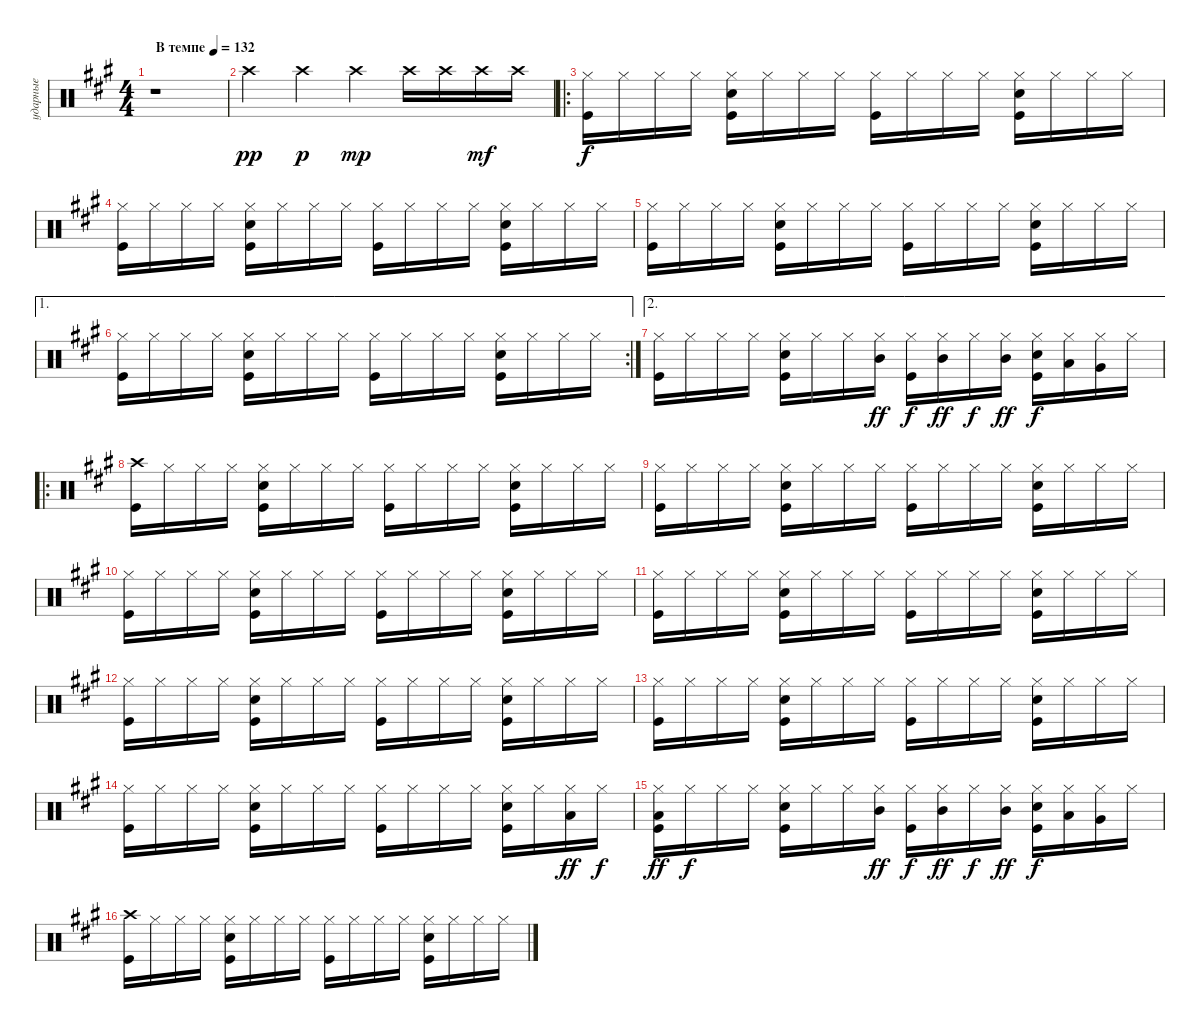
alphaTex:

\track ("ударные" "ударные") {instrument percussion}
\staff {score}
\articulation defaults
\ts (4 4)
\tempo (132 "В темпе")
\clef neutral
\ks f#minor
r.1{dy pp} |
"Crash high (hit)".4 "Crash high (hit)".4{dy p} "Crash high (hit)".4{dy mp} "Crash high (hit)".16 "Crash high (hit)".16 "Crash high (hit)".16{dy mf} "Crash high (hit)".16 |
\ro
("Kick (hit)" "Hi-Hat (closed)").16{dy f} "Hi-Hat (closed)".16 "Hi-Hat (closed)".16 "Hi-Hat (closed)".16 ("Hi-Hat (closed)" "Snare (hit) 2" "Kick (hit)").16 "Hi-Hat (closed)".16 "Hi-Hat (closed)".16 "Hi-Hat (closed)".16 ("Hi-Hat (closed)" "Kick (hit)").16 "Hi-Hat (closed)".16 "Hi-Hat (closed)".16 "Hi-Hat (closed)".16 ("Hi-Hat (closed)" "Snare (hit) 2" "Kick (hit)").16 "Hi-Hat (closed)".16 "Hi-Hat (closed)".16 "Hi-Hat (closed)".16 |
("Hi-Hat (closed)" "Kick (hit)").16 "Hi-Hat (closed)".16 "Hi-Hat (closed)".16 "Hi-Hat (closed)".16 ("Hi-Hat (closed)" "Snare (hit) 2" "Kick (hit)").16 "Hi-Hat (closed)".16 "Hi-Hat (closed)".16 "Hi-Hat (closed)".16 ("Hi-Hat (closed)" "Kick (hit)").16 "Hi-Hat (closed)".16 "Hi-Hat (closed)".16 "Hi-Hat (closed)".16 ("Hi-Hat (closed)" "Snare (hit) 2" "Kick (hit)").16 "Hi-Hat (closed)".16 "Hi-Hat (closed)".16 "Hi-Hat (closed)".16 |
("Hi-Hat (closed)" "Kick (hit)").16 "Hi-Hat (closed)".16 "Hi-Hat (closed)".16 "Hi-Hat (closed)".16 ("Hi-Hat (closed)" "Snare (hit) 2" "Kick (hit)").16 "Hi-Hat (closed)".16 "Hi-Hat (closed)".16 "Hi-Hat (closed)".16 ("Hi-Hat (closed)" "Kick (hit)").16 "Hi-Hat (closed)".16 "Hi-Hat (closed)".16 "Hi-Hat (closed)".16 ("Hi-Hat (closed)" "Snare (hit) 2" "Kick (hit)").16 "Hi-Hat (closed)".16 "Hi-Hat (closed)".16 "Hi-Hat (closed)".16 |
\ae 1
\rc 2
("Hi-Hat (closed)" "Kick (hit)").16 "Hi-Hat (closed)".16 "Hi-Hat (closed)".16 "Hi-Hat (closed)".16 ("Hi-Hat (closed)" "Snare (hit) 2" "Kick (hit)").16 "Hi-Hat (closed)".16 "Hi-Hat (closed)".16 "Hi-Hat (closed)".16 ("Hi-Hat (closed)" "Kick (hit)").16 "Hi-Hat (closed)".16 "Hi-Hat (closed)".16 "Hi-Hat (closed)".16 ("Hi-Hat (closed)" "Snare (hit) 2" "Kick (hit)").16 "Hi-Hat (closed)".16 "Hi-Hat (closed)".16 "Hi-Hat (closed)".16 |
\ae 2
("Hi-Hat (closed)" "Kick (hit)").16 "Hi-Hat (closed)".16 "Hi-Hat (closed)".16 "Hi-Hat (closed)".16 ("Hi-Hat (closed)" "Snare (hit) 2" "Kick (hit)").16 "Hi-Hat (closed)".16 "Hi-Hat (closed)".16 ("Mid Tom (hit)" "Hi-Hat (closed)").16{dy ff} ("Hi-Hat (closed)" "Kick (hit)").16{dy f} ("Mid Tom (hit)" "Hi-Hat (closed)").16{dy ff} "Hi-Hat (closed)".16{dy f} ("Mid Tom (hit)" "Hi-Hat (closed)").16{dy ff} ("Hi-Hat (closed)" "Snare (hit) 2" "Kick (hit)").16{dy f} ("Hi-Hat (closed)" "Low Tom (hit)").16 ("Very Low Tom (hit)" "Hi-Hat (closed)").16 "Hi-Hat (closed)".16 |
\ro
("Kick (hit)" "Crash high (hit)").16 "Hi-Hat (closed)".16 "Hi-Hat (closed)".16 "Hi-Hat (closed)".16 ("Hi-Hat (closed)" "Snare (hit) 2" "Kick (hit)").16 "Hi-Hat (closed)".16 "Hi-Hat (closed)".16 "Hi-Hat (closed)".16 ("Hi-Hat (closed)" "Kick (hit)").16 "Hi-Hat (closed)".16 "Hi-Hat (closed)".16 "Hi-Hat (closed)".16 ("Hi-Hat (closed)" "Snare (hit) 2" "Kick (hit)").16 "Hi-Hat (closed)".16 "Hi-Hat (closed)".16 "Hi-Hat (closed)".16 |
("Hi-Hat (closed)" "Kick (hit)").16 "Hi-Hat (closed)".16 "Hi-Hat (closed)".16 "Hi-Hat (closed)".16 ("Hi-Hat (closed)" "Snare (hit) 2" "Kick (hit)").16 "Hi-Hat (closed)".16 "Hi-Hat (closed)".16 "Hi-Hat (closed)".16 ("Hi-Hat (closed)" "Kick (hit)").16 "Hi-Hat (closed)".16 "Hi-Hat (closed)".16 "Hi-Hat (closed)".16 ("Hi-Hat (closed)" "Snare (hit) 2" "Kick (hit)").16 "Hi-Hat (closed)".16 "Hi-Hat (closed)".16 "Hi-Hat (closed)".16 |
("Hi-Hat (closed)" "Kick (hit)").16 "Hi-Hat (closed)".16 "Hi-Hat (closed)".16 "Hi-Hat (closed)".16 ("Hi-Hat (closed)" "Snare (hit) 2" "Kick (hit)").16 "Hi-Hat (closed)".16 "Hi-Hat (closed)".16 "Hi-Hat (closed)".16 ("Hi-Hat (closed)" "Kick (hit)").16 "Hi-Hat (closed)".16 "Hi-Hat (closed)".16 "Hi-Hat (closed)".16 ("Hi-Hat (closed)" "Snare (hit) 2" "Kick (hit)").16 "Hi-Hat (closed)".16 "Hi-Hat (closed)".16 "Hi-Hat (closed)".16 |
("Hi-Hat (closed)" "Kick (hit)").16 "Hi-Hat (closed)".16 "Hi-Hat (closed)".16 "Hi-Hat (closed)".16 ("Hi-Hat (closed)" "Snare (hit) 2" "Kick (hit)").16 "Hi-Hat (closed)".16 "Hi-Hat (closed)".16 "Hi-Hat (closed)".16 ("Hi-Hat (closed)" "Kick (hit)").16 "Hi-Hat (closed)".16 "Hi-Hat (closed)".16 "Hi-Hat (closed)".16 ("Hi-Hat (closed)" "Snare (hit) 2" "Kick (hit)").16 "Hi-Hat (closed)".16 "Hi-Hat (closed)".16 "Hi-Hat (closed)".16 |
("Hi-Hat (closed)" "Kick (hit)").16 "Hi-Hat (closed)".16 "Hi-Hat (closed)".16 "Hi-Hat (closed)".16 ("Hi-Hat (closed)" "Snare (hit) 2" "Kick (hit)").16 "Hi-Hat (closed)".16 "Hi-Hat (closed)".16 "Hi-Hat (closed)".16 ("Hi-Hat (closed)" "Kick (hit)").16 "Hi-Hat (closed)".16 "Hi-Hat (closed)".16 "Hi-Hat (closed)".16 ("Hi-Hat (closed)" "Snare (hit) 2" "Kick (hit)").16 "Hi-Hat (closed)".16 "Hi-Hat (closed)".16 "Hi-Hat (closed)".16 |
("Hi-Hat (closed)" "Kick (hit)").16 "Hi-Hat (closed)".16 "Hi-Hat (closed)".16 "Hi-Hat (closed)".16 ("Hi-Hat (closed)" "Snare (hit) 2" "Kick (hit)").16 "Hi-Hat (closed)".16 "Hi-Hat (closed)".16 "Hi-Hat (closed)".16 ("Hi-Hat (closed)" "Kick (hit)").16 "Hi-Hat (closed)".16 "Hi-Hat (closed)".16 "Hi-Hat (closed)".16 ("Hi-Hat (closed)" "Snare (hit) 2" "Kick (hit)").16 "Hi-Hat (closed)".16 "Hi-Hat (closed)".16 "Hi-Hat (closed)".16 |
("Hi-Hat (closed)" "Kick (hit)").16 "Hi-Hat (closed)".16 "Hi-Hat (closed)".16 "Hi-Hat (closed)".16 ("Hi-Hat (closed)" "Snare (hit) 2" "Kick (hit)").16 "Hi-Hat (closed)".16 "Hi-Hat (closed)".16 "Hi-Hat (closed)".16 ("Hi-Hat (closed)" "Kick (hit)").16 "Hi-Hat (closed)".16 "Hi-Hat (closed)".16 "Hi-Hat (closed)".16 ("Hi-Hat (closed)" "Snare (hit) 2" "Kick (hit)").16 "Hi-Hat (closed)".16 ("Hi-Hat (closed)" "Low Floor Tom (hit)").16{dy ff} "Hi-Hat (closed)".16{dy f} |
("Hi-Hat (closed)" "Kick (hit)" "Low Floor Tom (hit)").16{dy ff} "Hi-Hat (closed)".16{dy f} "Hi-Hat (closed)".16 "Hi-Hat (closed)".16 ("Hi-Hat (closed)" "Snare (hit) 2" "Kick (hit)").16 "Hi-Hat (closed)".16 "Hi-Hat (closed)".16 ("Mid Tom (hit)" "Hi-Hat (closed)").16{dy ff} ("Hi-Hat (closed)" "Kick (hit)").16{dy f} ("Mid Tom (hit)" "Hi-Hat (closed)").16{dy ff} "Hi-Hat (closed)".16{dy f} ("Mid Tom (hit)" "Hi-Hat (closed)").16{dy ff} ("Hi-Hat (closed)" "Snare (hit) 2" "Kick (hit)").16{dy f} ("Hi-Hat (closed)" "Low Tom (hit)").16 ("Very Low Tom (hit)" "Hi-Hat (closed)").16 "Hi-Hat (closed)".16 |
("Kick (hit)" "Crash high (hit)").16 "Hi-Hat (closed)".16 "Hi-Hat (closed)".16 "Hi-Hat (closed)".16 ("Hi-Hat (closed)" "Snare (hit) 2" "Kick (hit)").16 "Hi-Hat (closed)".16 "Hi-Hat (closed)".16 "Hi-Hat (closed)".16 ("Hi-Hat (closed)" "Kick (hit)").16 "Hi-Hat (closed)".16 "Hi-Hat (closed)".16 "Hi-Hat (closed)".16 ("Hi-Hat (closed)" "Snare (hit) 2" "Kick (hit)").16 "Hi-Hat (closed)".16 "Hi-Hat (closed)".16 "Hi-Hat (closed)".16
